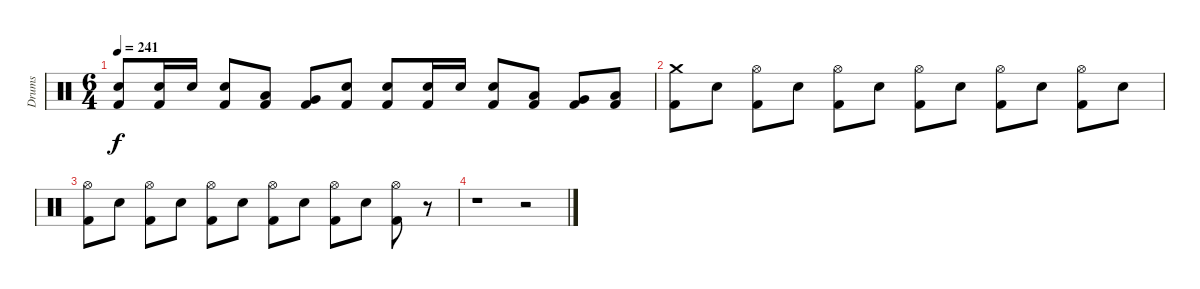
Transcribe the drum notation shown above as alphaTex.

\track ("Drums" "Drums") {instrument percussion}
\staff {score}
\articulation defaults
\ts (6 4)
\tempo 241
\clef neutral
\ks c
("Electric Snare (hit)" "Kick (hit) 2").8{dy f} ("Electric Snare (hit)" "Kick (hit) 2").16 "Electric Snare (hit)".16 ("Electric Snare (hit)" "Kick (hit) 2").8 ("Low Tom (hit)" "Kick (hit) 2").8 ("Very Low Tom (hit)" "Kick (hit) 2").8 ("Electric Snare (hit)" "Kick (hit) 2").8 ("Electric Snare (hit)" "Kick (hit) 2").8 ("Electric Snare (hit)" "Kick (hit) 2").16 "Electric Snare (hit)".16 ("Electric Snare (hit)" "Kick (hit) 2").8 ("Low Tom (hit)" "Kick (hit) 2").8 ("Very Low Tom (hit)" "Kick (hit) 2").8 ("Low Floor Tom (hit)" "Kick (hit) 2").8 |
("Crash medium (hit)" "Kick (hit) 2").8 "Electric Snare (hit)".8 ("Hi-Hat (open)" "Kick (hit) 2").8 "Electric Snare (hit)".8 ("Hi-Hat (open)" "Kick (hit) 2").8 "Electric Snare (hit)".8 ("Hi-Hat (open)" "Kick (hit) 2").8 "Electric Snare (hit)".8 ("Hi-Hat (open)" "Kick (hit) 2").8 "Electric Snare (hit)".8 ("Hi-Hat (open)" "Kick (hit) 2").8 "Electric Snare (hit)".8 |
("Hi-Hat (open)" "Kick (hit) 2").8 "Electric Snare (hit)".8 ("Hi-Hat (open)" "Kick (hit) 2").8 "Electric Snare (hit)".8 ("Hi-Hat (open)" "Kick (hit) 2").8 "Electric Snare (hit)".8 ("Hi-Hat (open)" "Kick (hit) 2").8 "Electric Snare (hit)".8 ("Hi-Hat (open)" "Kick (hit) 2").8 "Electric Snare (hit)".8 ("Hi-Hat (open)" "Kick (hit) 2").8 r.8{volume 0} |
r.1 r.2
